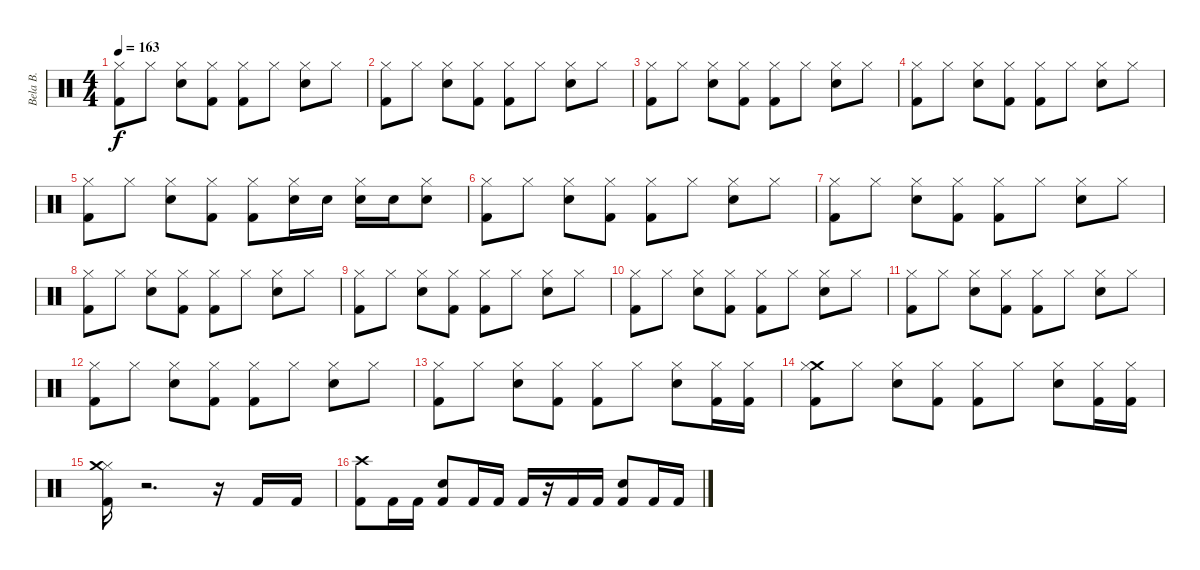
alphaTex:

\track ("Bela B." "Bela B.") {instrument percussion}
\staff {score}
\articulation defaults
\ts (4 4)
\tempo 163
\clef neutral
\ks c
("Kick (hit) 2" "Hi-Hat (closed)").8{dy f} "Hi-Hat (closed)".8 ("Snare (hit) 2" "Hi-Hat (closed)").8 ("Hi-Hat (closed)" "Kick (hit) 2").8 ("Hi-Hat (closed)" "Kick (hit) 2").8 "Hi-Hat (closed)".8 ("Snare (hit) 2" "Hi-Hat (closed)").8 "Hi-Hat (closed)".8 |
("Kick (hit) 2" "Hi-Hat (closed)").8 "Hi-Hat (closed)".8 ("Snare (hit) 2" "Hi-Hat (closed)").8 ("Kick (hit) 2" "Hi-Hat (closed)").8 ("Kick (hit) 2" "Hi-Hat (closed)").8 "Hi-Hat (closed)".8 ("Snare (hit) 2" "Hi-Hat (closed)").8 "Hi-Hat (closed)".8 |
("Hi-Hat (closed)" "Kick (hit) 2").8 "Hi-Hat (closed)".8 ("Hi-Hat (closed)" "Snare (hit) 2").8 ("Kick (hit) 2" "Hi-Hat (closed)").8 ("Hi-Hat (closed)" "Kick (hit) 2").8 "Hi-Hat (closed)".8 ("Snare (hit) 2" "Hi-Hat (closed)").8 "Hi-Hat (closed)".8 |
("Kick (hit) 2" "Hi-Hat (closed)").8 "Hi-Hat (closed)".8 ("Hi-Hat (closed)" "Snare (hit) 2").8 ("Hi-Hat (closed)" "Kick (hit) 2").8 ("Kick (hit) 2" "Hi-Hat (closed)").8 "Hi-Hat (closed)".8 ("Snare (hit) 2" "Hi-Hat (closed)").8 "Hi-Hat (closed)".8 |
("Hi-Hat (closed)" "Kick (hit) 2").8 "Hi-Hat (closed)".8 ("Snare (hit) 2" "Hi-Hat (closed)").8 ("Hi-Hat (closed)" "Kick (hit) 2").8 ("Kick (hit) 2" "Hi-Hat (closed)").8 ("Snare (hit) 2" "Hi-Hat (closed)").16 "Snare (hit) 2".16 ("Hi-Hat (closed)" "Snare (hit) 2").16 "Snare (hit) 2".16 ("Hi-Hat (closed)" "Snare (hit) 2").8 |
("Kick (hit) 2" "Hi-Hat (closed)").8 "Hi-Hat (closed)".8 ("Hi-Hat (closed)" "Snare (hit) 2").8 ("Kick (hit) 2" "Hi-Hat (closed)").8 ("Hi-Hat (closed)" "Kick (hit) 2").8 "Hi-Hat (closed)".8 ("Snare (hit) 2" "Hi-Hat (closed)").8 "Hi-Hat (closed)".8 |
("Kick (hit) 2" "Hi-Hat (closed)").8 "Hi-Hat (closed)".8 ("Hi-Hat (closed)" "Snare (hit) 2").8 ("Hi-Hat (closed)" "Kick (hit) 2").8 ("Kick (hit) 2" "Hi-Hat (closed)").8 "Hi-Hat (closed)".8 ("Hi-Hat (closed)" "Snare (hit) 2").8 "Hi-Hat (closed)".8 |
("Kick (hit) 2" "Hi-Hat (closed)").8 "Hi-Hat (closed)".8 ("Hi-Hat (closed)" "Snare (hit) 2").8 ("Kick (hit) 2" "Hi-Hat (closed)").8 ("Hi-Hat (closed)" "Kick (hit) 2").8 "Hi-Hat (closed)".8 ("Hi-Hat (closed)" "Snare (hit) 2").8 "Hi-Hat (closed)".8 |
("Kick (hit) 2" "Hi-Hat (closed)").8 "Hi-Hat (closed)".8 ("Snare (hit) 2" "Hi-Hat (closed)").8 ("Hi-Hat (closed)" "Kick (hit) 2").8 ("Hi-Hat (closed)" "Kick (hit) 2").8 "Hi-Hat (closed)".8 ("Snare (hit) 2" "Hi-Hat (closed)").8 "Hi-Hat (closed)".8 |
("Kick (hit) 2" "Hi-Hat (closed)").8 "Hi-Hat (closed)".8 ("Snare (hit) 2" "Hi-Hat (closed)").8 ("Hi-Hat (closed)" "Kick (hit) 2").8 ("Hi-Hat (closed)" "Kick (hit) 2").8 "Hi-Hat (closed)".8 ("Snare (hit) 2" "Hi-Hat (closed)").8 "Hi-Hat (closed)".8 |
("Kick (hit) 2" "Hi-Hat (closed)").8 "Hi-Hat (closed)".8 ("Snare (hit) 2" "Hi-Hat (closed)").8 ("Hi-Hat (closed)" "Kick (hit) 2").8 ("Hi-Hat (closed)" "Kick (hit) 2").8 "Hi-Hat (closed)".8 ("Snare (hit) 2" "Hi-Hat (closed)").8 "Hi-Hat (closed)".8 |
("Kick (hit) 2" "Hi-Hat (closed)").8 "Hi-Hat (closed)".8 ("Snare (hit) 2" "Hi-Hat (closed)").8 ("Hi-Hat (closed)" "Kick (hit) 2").8 ("Hi-Hat (closed)" "Kick (hit) 2").8 "Hi-Hat (closed)".8 ("Snare (hit) 2" "Hi-Hat (closed)").8 "Hi-Hat (closed)".8 |
("Kick (hit) 2" "Hi-Hat (closed)").8 "Hi-Hat (closed)".8 ("Snare (hit) 2" "Hi-Hat (closed)").8 ("Hi-Hat (closed)" "Kick (hit) 2").8 ("Hi-Hat (closed)" "Kick (hit) 2").8 "Hi-Hat (closed)".8 ("Snare (hit) 2" "Hi-Hat (closed)").8 ("Kick (hit) 2" "Hi-Hat (closed)").16 ("Hi-Hat (closed)" "Kick (hit) 2").16 |
("Crash medium (hit)" "Kick (hit) 2" "Hi-Hat (closed)").8 "Hi-Hat (closed)".8 ("Snare (hit) 2" "Hi-Hat (closed)").8 ("Hi-Hat (closed)" "Kick (hit) 2").8 ("Hi-Hat (closed)" "Kick (hit) 2").8 "Hi-Hat (closed)".8 ("Snare (hit) 2" "Hi-Hat (closed)").8 ("Kick (hit) 2" "Hi-Hat (closed)").16 ("Hi-Hat (closed)" "Kick (hit) 2").16 |
("Hi-Hat (closed)" "Kick (hit) 2" "Crash medium (hit)").16 r.2{d} r.16 "Kick (hit) 2".16 "Kick (hit) 2".16 |
("Crash high (hit)" "Kick (hit) 2").8 "Kick (hit) 2".16 "Kick (hit) 2".16 ("Snare (hit) 2" "Kick (hit) 2").8 "Kick (hit) 2".16 "Kick (hit) 2".16 "Kick (hit) 2".16 r.16 "Kick (hit) 2".16 "Kick (hit) 2".16 ("Snare (hit) 2" "Kick (hit) 2").8 "Kick (hit) 2".16 "Kick (hit) 2".16
